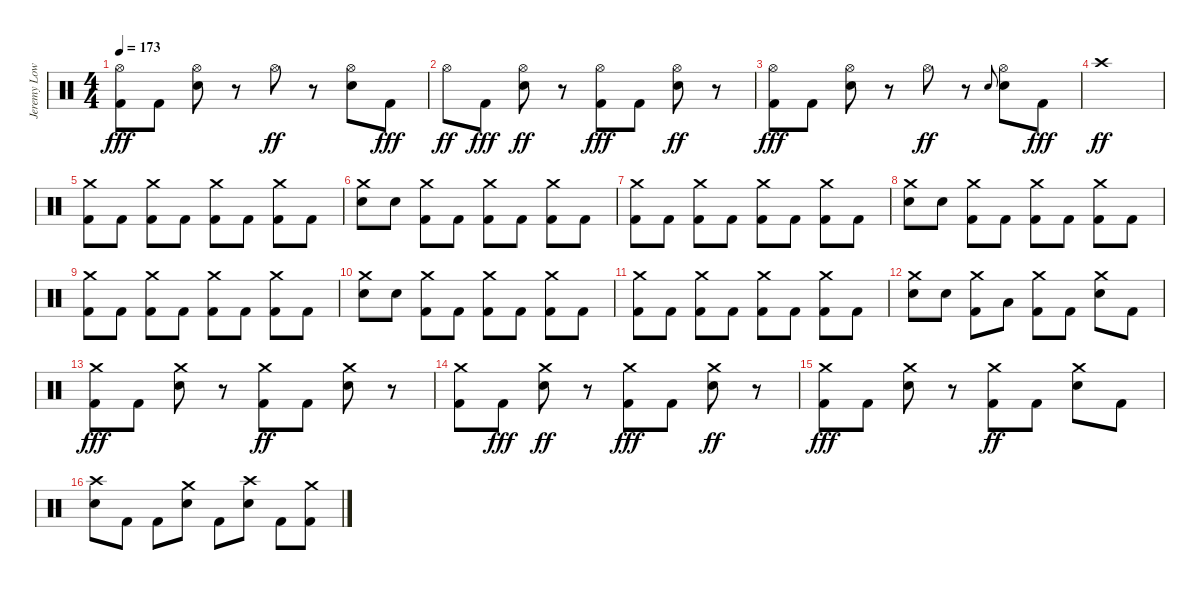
\track ("Jeremy Lowery" "Jeremy Low") {instrument percussion}
\staff {score}
\articulation defaults
\ts (4 4)
\tempo 173
\clef neutral
\ks c
("Hi-Hat (open)" "Kick (hit) 2").8{dy fff} "Kick (hit) 2".8 ("Hi-Hat (open)" "Electric Snare (hit)").8 r.8 "Hi-Hat (open)".8{dy ff} r.8 ("Hi-Hat (open)" "Electric Snare (hit)").8 "Kick (hit) 2".8{dy fff} |
"Hi-Hat (open)".8{dy ff} "Kick (hit) 2".8{dy fff} ("Hi-Hat (open)" "Electric Snare (hit)").8{dy ff} r.8 ("Hi-Hat (open)" "Kick (hit) 2").8{dy fff} "Kick (hit) 2".8 ("Hi-Hat (open)" "Electric Snare (hit)").8{dy ff} r.8 |
("Hi-Hat (open)" "Kick (hit) 2").8{dy fff} "Kick (hit) 2".8 ("Hi-Hat (open)" "Electric Snare (hit)").8 r.8 "Hi-Hat (open)".8{dy ff} r.8 "Electric Snare (hit)".8{gr onbeat} ("Hi-Hat (open)" "Electric Snare (hit)").8 "Kick (hit) 2".8{dy fff} |
"Crash high (hit)".1{dy ff} |
("Crash medium (hit)" "Kick (hit) 2").8 "Kick (hit) 2".8 ("Crash medium (hit)" "Kick (hit) 2").8 "Kick (hit) 2".8 ("Crash medium (hit)" "Kick (hit) 2").8 "Kick (hit) 2".8 ("Crash medium (hit)" "Kick (hit) 2").8 "Kick (hit) 2".8 |
("Crash medium (hit)" "Electric Snare (hit)").8 "Electric Snare (hit)".8 ("Crash medium (hit)" "Kick (hit) 2").8 "Kick (hit) 2".8 ("Crash medium (hit)" "Kick (hit) 2").8 "Kick (hit) 2".8 ("Crash medium (hit)" "Kick (hit) 2").8 "Kick (hit) 2".8 |
("Crash medium (hit)" "Kick (hit) 2").8 "Kick (hit) 2".8 ("Crash medium (hit)" "Kick (hit) 2").8 "Kick (hit) 2".8 ("Crash medium (hit)" "Kick (hit) 2").8 "Kick (hit) 2".8 ("Crash medium (hit)" "Kick (hit) 2").8 "Kick (hit) 2".8 |
("Crash medium (hit)" "Electric Snare (hit)").8 "Electric Snare (hit)".8 ("Crash medium (hit)" "Kick (hit) 2").8 "Kick (hit) 2".8 ("Crash medium (hit)" "Kick (hit) 2").8 "Kick (hit) 2".8 ("Crash medium (hit)" "Kick (hit) 2").8 "Kick (hit) 2".8 |
("Crash medium (hit)" "Kick (hit) 2").8 "Kick (hit) 2".8 ("Crash medium (hit)" "Kick (hit) 2").8 "Kick (hit) 2".8 ("Crash medium (hit)" "Kick (hit) 2").8 "Kick (hit) 2".8 ("Crash medium (hit)" "Kick (hit) 2").8 "Kick (hit) 2".8 |
("Crash medium (hit)" "Electric Snare (hit)").8 "Electric Snare (hit)".8 ("Crash medium (hit)" "Kick (hit) 2").8 "Kick (hit) 2".8 ("Crash medium (hit)" "Kick (hit) 2").8 "Kick (hit) 2".8 ("Crash medium (hit)" "Kick (hit) 2").8 "Kick (hit) 2".8 |
("Crash medium (hit)" "Kick (hit) 2").8 "Kick (hit) 2".8 ("Crash medium (hit)" "Kick (hit) 2").8 "Kick (hit) 2".8 ("Crash medium (hit)" "Kick (hit) 2").8 "Kick (hit) 2".8 ("Crash medium (hit)" "Kick (hit) 2").8 "Kick (hit) 2".8 |
("Crash medium (hit)" "Electric Snare (hit)").8 "Electric Snare (hit)".8 ("Crash medium (hit)" "Kick (hit) 2").8 "Low Floor Tom (hit)".8 ("Crash medium (hit)" "Kick (hit) 2").8 "Kick (hit) 2".8 ("Crash medium (hit)" "Electric Snare (hit)").8 "Kick (hit) 2".8 |
("Crash medium (hit)" "Kick (hit) 2").8{dy fff} "Kick (hit) 2".8 ("Crash medium (hit)" "Electric Snare (hit)").8 r.8 ("Crash medium (hit)" "Kick (hit) 2").8{dy ff} "Kick (hit) 2".8 ("Crash medium (hit)" "Electric Snare (hit)").8 r.8 |
("Crash medium (hit)" "Kick (hit) 2").8 "Kick (hit) 2".8{dy fff} ("Crash medium (hit)" "Electric Snare (hit)").8{dy ff} r.8 ("Crash medium (hit)" "Kick (hit) 2").8{dy fff} "Kick (hit) 2".8 ("Crash medium (hit)" "Electric Snare (hit)").8{dy ff} r.8 |
("Crash medium (hit)" "Kick (hit) 2").8{dy fff} "Kick (hit) 2".8 ("Crash medium (hit)" "Electric Snare (hit)").8 r.8 ("Crash medium (hit)" "Kick (hit) 2").8{dy ff} "Kick (hit) 2".8 ("Crash medium (hit)" "Electric Snare (hit)").8 "Kick (hit) 2".8 |
("Crash high (hit)" "Electric Snare (hit)").8 "Kick (hit) 2".8 "Kick (hit) 2".8 ("Crash medium (hit)" "Electric Snare (hit)").8 "Kick (hit) 2".8 ("Crash high (hit)" "Electric Snare (hit)").8 "Kick (hit) 2".8 ("Crash medium (hit)" "Kick (hit) 2").8
